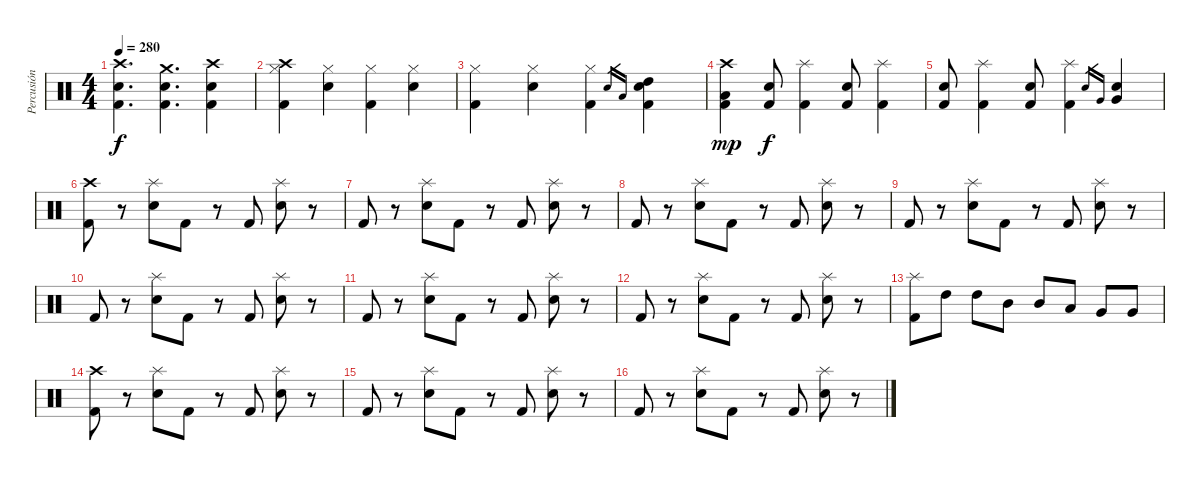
\track ("Percusión" "Percusión") {instrument percussion}
\staff {score}
\articulation defaults
\ts (4 4)
\tempo 280
\clef neutral
\ks c
("Crash high (hit)" "Snare (hit) 2" "Kick (hit) 2").4{d dy f} ("Crash medium (hit)" "Snare (hit) 2" "Kick (hit) 2").4{d} ("Crash high (hit)" "Snare (hit) 2" "Kick (hit) 2").4 |
("Crash high (hit)" "Hi-Hat (closed)" "Kick (hit) 2").4 ("Snare (hit) 2" "Hi-Hat (closed)").4 ("Hi-Hat (closed)" "Kick (hit) 2").4 ("Snare (hit) 2" "Hi-Hat (closed)").4 |
("Hi-Hat (closed)" "Kick (hit) 2").4 ("Snare (hit) 2" "Hi-Hat (closed)").4 ("Hi-Hat (closed)" "Kick (hit) 2").4 "Snare (hit) 2".16{gr} "Low Tom (hit)".16{gr} ("Snare (hit) 2" "High Tom (hit)" "Kick (hit) 2").4 |
("Low Tom (hit)" "Crash high (hit)" "Kick (hit) 2").4{dy mp} ("Snare (hit) 2" "Kick (hit) 2").8{dy f} ("Splash (hit)" "Kick (hit) 2").4 ("Snare (hit) 2" "Kick (hit) 2").8 ("Splash (hit)" "Kick (hit) 2").4 |
("Snare (hit) 2" "Kick (hit) 2").8 ("Splash (hit)" "Kick (hit) 2").4 ("Snare (hit) 2" "Kick (hit) 2").8 ("Splash (hit)" "Kick (hit) 2").4 "Snare (hit) 2".16{gr} "Very Low Tom (hit)".16{gr} ("Snare (hit) 2" "Very Low Tom (hit)").4 |
("Crash high (hit)" "Kick (hit) 2").8 r.8 ("Snare (hit) 2" "Splash (hit)").8 "Kick (hit) 2".8 r.8 "Kick (hit) 2".8 ("Snare (hit) 2" "Splash (hit)").8 r.8 |
"Kick (hit) 2".8 r.8 ("Snare (hit) 2" "Splash (hit)").8 "Kick (hit) 2".8 r.8 "Kick (hit) 2".8 ("Snare (hit) 2" "Splash (hit)").8 r.8 |
"Kick (hit) 2".8 r.8 ("Snare (hit) 2" "Splash (hit)").8 "Kick (hit) 2".8 r.8 "Kick (hit) 2".8 ("Snare (hit) 2" "Splash (hit)").8 r.8 |
"Kick (hit) 2".8 r.8 ("Snare (hit) 2" "Splash (hit)").8 "Kick (hit) 2".8 r.8 "Kick (hit) 2".8 ("Snare (hit) 2" "Splash (hit)").8 r.8 |
"Kick (hit) 2".8 r.8 ("Snare (hit) 2" "Splash (hit)").8 "Kick (hit) 2".8 r.8 "Kick (hit) 2".8 ("Snare (hit) 2" "Splash (hit)").8 r.8 |
"Kick (hit) 2".8 r.8 ("Snare (hit) 2" "Splash (hit)").8 "Kick (hit) 2".8 r.8 "Kick (hit) 2".8 ("Snare (hit) 2" "Splash (hit)").8 r.8 |
"Kick (hit) 2".8 r.8 ("Snare (hit) 2" "Splash (hit)").8 "Kick (hit) 2".8 r.8 "Kick (hit) 2".8 ("Snare (hit) 2" "Splash (hit)").8 r.8 |
("Splash (hit)" "Kick (hit) 2").8 "High Tom (hit)".8 "High Tom (hit)".8 "Mid Tom (hit)".8 "Mid Tom (hit)".8 "Low Tom (hit)".8 "Very Low Tom (hit)".8 "Very Low Tom (hit)".8 |
("Crash high (hit)" "Kick (hit) 2").8 r.8 ("Snare (hit) 2" "Splash (hit)").8 "Kick (hit) 2".8 r.8 "Kick (hit) 2".8 ("Snare (hit) 2" "Splash (hit)").8 r.8 |
"Kick (hit) 2".8 r.8 ("Snare (hit) 2" "Splash (hit)").8 "Kick (hit) 2".8 r.8 "Kick (hit) 2".8 ("Snare (hit) 2" "Splash (hit)").8 r.8 |
"Kick (hit) 2".8 r.8 ("Snare (hit) 2" "Splash (hit)").8 "Kick (hit) 2".8 r.8 "Kick (hit) 2".8 ("Snare (hit) 2" "Splash (hit)").8 r.8
